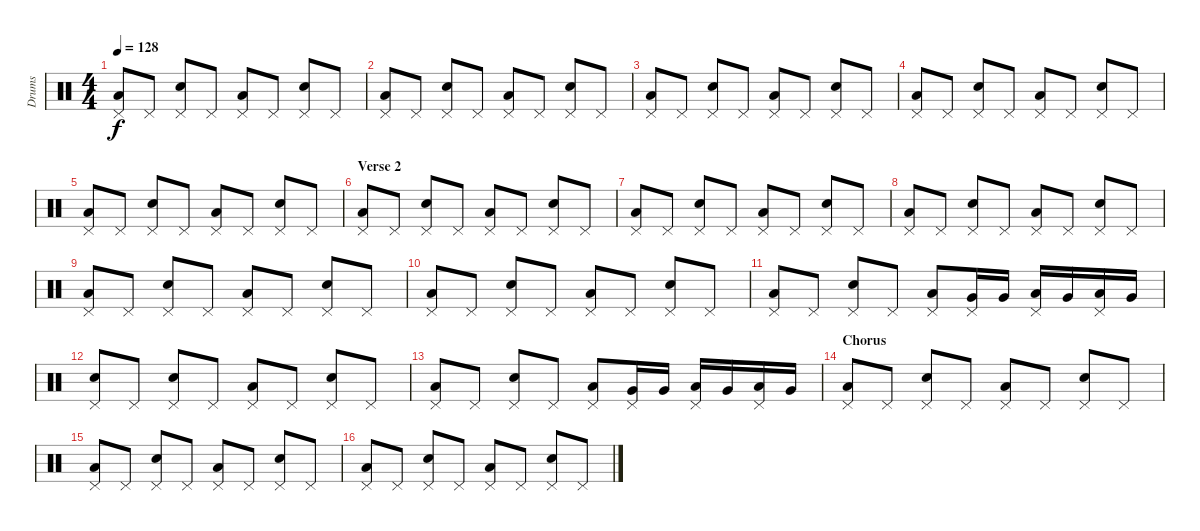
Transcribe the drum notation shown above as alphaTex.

\track ("Drums" "Drums") {instrument percussion}
\staff {score}
\articulation defaults
\ts (4 4)
\tempo 128
\clef neutral
\ks c
("Pedal Hi-Hat (hit)" "Low Floor Tom (hit)").8{dy f} "Pedal Hi-Hat (hit)".8 ("Pedal Hi-Hat (hit)" "Electric Snare (hit)").8 "Pedal Hi-Hat (hit)".8 ("Pedal Hi-Hat (hit)" "Low Floor Tom (hit)").8 "Pedal Hi-Hat (hit)".8 ("Pedal Hi-Hat (hit)" "Electric Snare (hit)").8 "Pedal Hi-Hat (hit)".8 |
("Pedal Hi-Hat (hit)" "Low Floor Tom (hit)").8 "Pedal Hi-Hat (hit)".8 ("Pedal Hi-Hat (hit)" "Electric Snare (hit)").8 "Pedal Hi-Hat (hit)".8 ("Pedal Hi-Hat (hit)" "Low Floor Tom (hit)").8 "Pedal Hi-Hat (hit)".8 ("Pedal Hi-Hat (hit)" "Electric Snare (hit)").8 "Pedal Hi-Hat (hit)".8 |
("Pedal Hi-Hat (hit)" "Low Floor Tom (hit)").8 "Pedal Hi-Hat (hit)".8 ("Pedal Hi-Hat (hit)" "Electric Snare (hit)").8 "Pedal Hi-Hat (hit)".8 ("Pedal Hi-Hat (hit)" "Low Floor Tom (hit)").8 "Pedal Hi-Hat (hit)".8 ("Pedal Hi-Hat (hit)" "Electric Snare (hit)").8 "Pedal Hi-Hat (hit)".8 |
("Pedal Hi-Hat (hit)" "Low Floor Tom (hit)").8 "Pedal Hi-Hat (hit)".8 ("Pedal Hi-Hat (hit)" "Electric Snare (hit)").8 "Pedal Hi-Hat (hit)".8 ("Pedal Hi-Hat (hit)" "Low Floor Tom (hit)").8 "Pedal Hi-Hat (hit)".8 ("Pedal Hi-Hat (hit)" "Electric Snare (hit)").8 "Pedal Hi-Hat (hit)".8 |
("Pedal Hi-Hat (hit)" "Low Floor Tom (hit)").8 "Pedal Hi-Hat (hit)".8 ("Pedal Hi-Hat (hit)" "Electric Snare (hit)").8 "Pedal Hi-Hat (hit)".8 ("Pedal Hi-Hat (hit)" "Low Floor Tom (hit)").8 "Pedal Hi-Hat (hit)".8 ("Pedal Hi-Hat (hit)" "Electric Snare (hit)").8 "Pedal Hi-Hat (hit)".8 |
\section ("" "Verse 2")
("Pedal Hi-Hat (hit)" "Low Floor Tom (hit)").8 "Pedal Hi-Hat (hit)".8 ("Pedal Hi-Hat (hit)" "Electric Snare (hit)").8 "Pedal Hi-Hat (hit)".8 ("Pedal Hi-Hat (hit)" "Low Floor Tom (hit)").8 "Pedal Hi-Hat (hit)".8 ("Pedal Hi-Hat (hit)" "Electric Snare (hit)").8 "Pedal Hi-Hat (hit)".8 |
("Pedal Hi-Hat (hit)" "Low Floor Tom (hit)").8 "Pedal Hi-Hat (hit)".8 ("Pedal Hi-Hat (hit)" "Electric Snare (hit)").8 "Pedal Hi-Hat (hit)".8 ("Pedal Hi-Hat (hit)" "Low Floor Tom (hit)").8 "Pedal Hi-Hat (hit)".8 ("Pedal Hi-Hat (hit)" "Electric Snare (hit)").8 "Pedal Hi-Hat (hit)".8 |
("Pedal Hi-Hat (hit)" "Low Floor Tom (hit)").8 "Pedal Hi-Hat (hit)".8 ("Pedal Hi-Hat (hit)" "Electric Snare (hit)").8 "Pedal Hi-Hat (hit)".8 ("Pedal Hi-Hat (hit)" "Low Floor Tom (hit)").8 "Pedal Hi-Hat (hit)".8 ("Pedal Hi-Hat (hit)" "Electric Snare (hit)").8 "Pedal Hi-Hat (hit)".8 |
("Pedal Hi-Hat (hit)" "Low Floor Tom (hit)").8 "Pedal Hi-Hat (hit)".8 ("Pedal Hi-Hat (hit)" "Electric Snare (hit)").8 "Pedal Hi-Hat (hit)".8 ("Pedal Hi-Hat (hit)" "Low Floor Tom (hit)").8 "Pedal Hi-Hat (hit)".8 ("Pedal Hi-Hat (hit)" "Electric Snare (hit)").8 "Pedal Hi-Hat (hit)".8 |
("Pedal Hi-Hat (hit)" "Low Floor Tom (hit)").8 "Pedal Hi-Hat (hit)".8 ("Pedal Hi-Hat (hit)" "Electric Snare (hit)").8 "Pedal Hi-Hat (hit)".8 ("Pedal Hi-Hat (hit)" "Low Floor Tom (hit)").8 "Pedal Hi-Hat (hit)".8 ("Pedal Hi-Hat (hit)" "Electric Snare (hit)").8 "Pedal Hi-Hat (hit)".8 |
("Pedal Hi-Hat (hit)" "Low Floor Tom (hit)").8 "Pedal Hi-Hat (hit)".8 ("Pedal Hi-Hat (hit)" "Electric Snare (hit)").8 "Pedal Hi-Hat (hit)".8 ("Pedal Hi-Hat (hit)" "Low Floor Tom (hit)").8 ("Pedal Hi-Hat (hit)" "Very Low Tom (hit)").16 "Very Low Tom (hit)".16 ("Pedal Hi-Hat (hit)" "Low Floor Tom (hit)").16 "Very Low Tom (hit)".16 ("Pedal Hi-Hat (hit)" "Low Floor Tom (hit)").16 "Very Low Tom (hit)".16 |
("Pedal Hi-Hat (hit)" "Electric Snare (hit)").8 "Pedal Hi-Hat (hit)".8 ("Pedal Hi-Hat (hit)" "Electric Snare (hit)").8 "Pedal Hi-Hat (hit)".8 ("Pedal Hi-Hat (hit)" "Low Floor Tom (hit)").8 "Pedal Hi-Hat (hit)".8 ("Pedal Hi-Hat (hit)" "Electric Snare (hit)").8 "Pedal Hi-Hat (hit)".8 |
("Pedal Hi-Hat (hit)" "Low Floor Tom (hit)").8 "Pedal Hi-Hat (hit)".8 ("Pedal Hi-Hat (hit)" "Electric Snare (hit)").8 "Pedal Hi-Hat (hit)".8 ("Pedal Hi-Hat (hit)" "Low Floor Tom (hit)").8 ("Pedal Hi-Hat (hit)" "Very Low Tom (hit)").16 "Very Low Tom (hit)".16 ("Pedal Hi-Hat (hit)" "Low Floor Tom (hit)").16 "Very Low Tom (hit)".16 ("Pedal Hi-Hat (hit)" "Low Floor Tom (hit)").16 "Very Low Tom (hit)".16 |
\section ("" "Chorus")
("Pedal Hi-Hat (hit)" "Low Floor Tom (hit)").8 "Pedal Hi-Hat (hit)".8 ("Pedal Hi-Hat (hit)" "Electric Snare (hit)").8 "Pedal Hi-Hat (hit)".8 ("Pedal Hi-Hat (hit)" "Low Floor Tom (hit)").8 "Pedal Hi-Hat (hit)".8 ("Pedal Hi-Hat (hit)" "Electric Snare (hit)").8 "Pedal Hi-Hat (hit)".8 |
("Pedal Hi-Hat (hit)" "Low Floor Tom (hit)").8 "Pedal Hi-Hat (hit)".8 ("Pedal Hi-Hat (hit)" "Electric Snare (hit)").8 "Pedal Hi-Hat (hit)".8 ("Pedal Hi-Hat (hit)" "Low Floor Tom (hit)").8 "Pedal Hi-Hat (hit)".8 ("Pedal Hi-Hat (hit)" "Electric Snare (hit)").8 "Pedal Hi-Hat (hit)".8 |
("Pedal Hi-Hat (hit)" "Low Floor Tom (hit)").8 "Pedal Hi-Hat (hit)".8 ("Pedal Hi-Hat (hit)" "Electric Snare (hit)").8 "Pedal Hi-Hat (hit)".8 ("Pedal Hi-Hat (hit)" "Low Floor Tom (hit)").8 "Pedal Hi-Hat (hit)".8 ("Pedal Hi-Hat (hit)" "Electric Snare (hit)").8 "Pedal Hi-Hat (hit)".8
